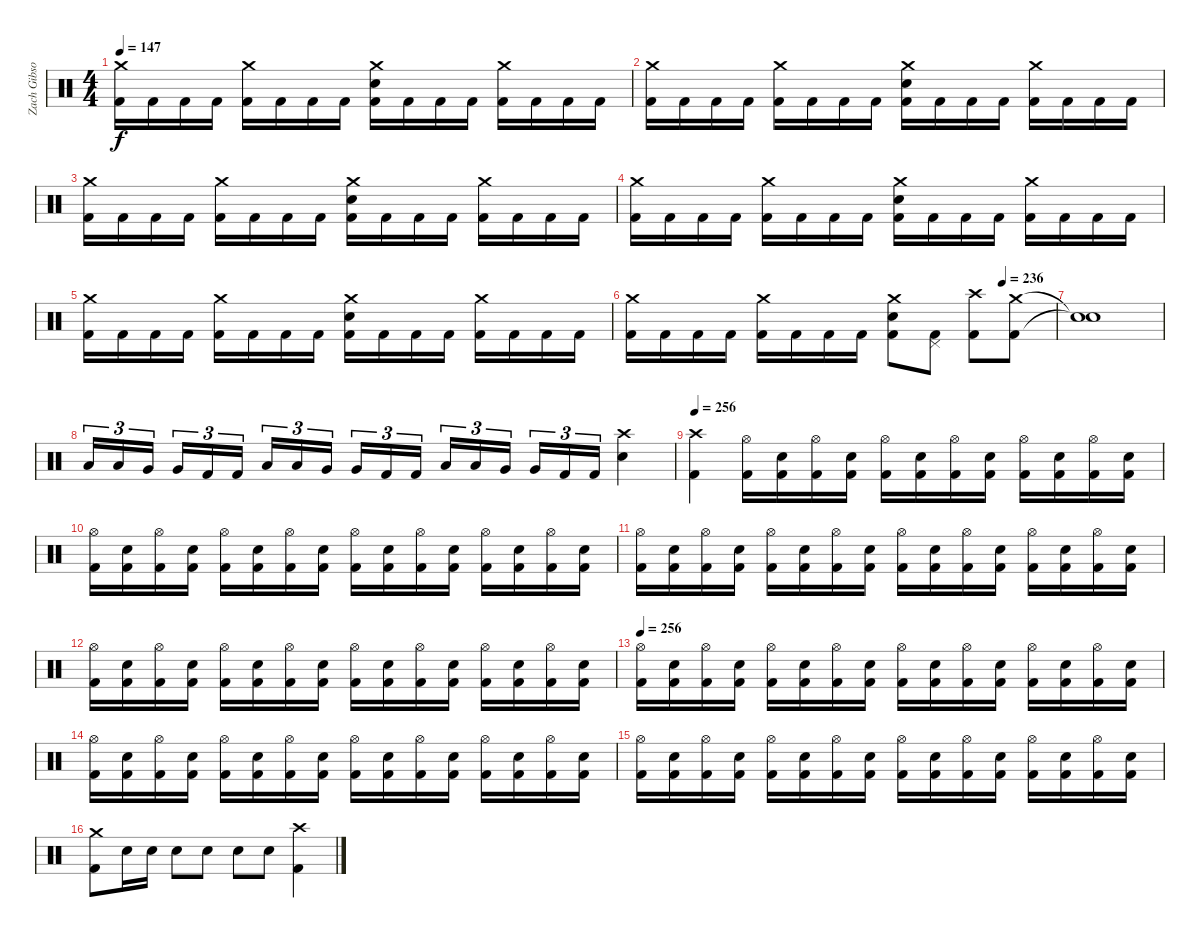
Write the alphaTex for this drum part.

\track ("Zach Gibson (Drums)" "Zach Gibso") {instrument percussion}
\staff {score}
\articulation defaults
\ts (4 4)
\tempo 147
\clef neutral
\ks c
("Crash medium (hit)" "Kick (hit) 2").16{dy f} "Kick (hit) 2".16 "Kick (hit) 2".16 "Kick (hit) 2".16 ("Crash medium (hit)" "Kick (hit) 2").16 "Kick (hit) 2".16 "Kick (hit) 2".16 "Kick (hit) 2".16 ("Crash medium (hit)" "Snare (hit) 2" "Kick (hit) 2").16 "Kick (hit) 2".16 "Kick (hit) 2".16 "Kick (hit) 2".16 ("Crash medium (hit)" "Kick (hit) 2").16 "Kick (hit) 2".16 "Kick (hit) 2".16 "Kick (hit) 2".16 |
("Crash medium (hit)" "Kick (hit) 2").16 "Kick (hit) 2".16 "Kick (hit) 2".16 "Kick (hit) 2".16 ("Crash medium (hit)" "Kick (hit) 2").16 "Kick (hit) 2".16 "Kick (hit) 2".16 "Kick (hit) 2".16 ("Crash medium (hit)" "Snare (hit) 2" "Kick (hit) 2").16 "Kick (hit) 2".16 "Kick (hit) 2".16 "Kick (hit) 2".16 ("Crash medium (hit)" "Kick (hit) 2").16 "Kick (hit) 2".16 "Kick (hit) 2".16 "Kick (hit) 2".16 |
("Crash medium (hit)" "Kick (hit) 2").16 "Kick (hit) 2".16 "Kick (hit) 2".16 "Kick (hit) 2".16 ("Crash medium (hit)" "Kick (hit) 2").16 "Kick (hit) 2".16 "Kick (hit) 2".16 "Kick (hit) 2".16 ("Crash medium (hit)" "Snare (hit) 2" "Kick (hit) 2").16 "Kick (hit) 2".16 "Kick (hit) 2".16 "Kick (hit) 2".16 ("Crash medium (hit)" "Kick (hit) 2").16 "Kick (hit) 2".16 "Kick (hit) 2".16 "Kick (hit) 2".16 |
("Crash medium (hit)" "Kick (hit) 2").16 "Kick (hit) 2".16 "Kick (hit) 2".16 "Kick (hit) 2".16 ("Crash medium (hit)" "Kick (hit) 2").16 "Kick (hit) 2".16 "Kick (hit) 2".16 "Kick (hit) 2".16 ("Crash medium (hit)" "Snare (hit) 2" "Kick (hit) 2").16 "Kick (hit) 2".16 "Kick (hit) 2".16 "Kick (hit) 2".16 ("Crash medium (hit)" "Kick (hit) 2").16 "Kick (hit) 2".16 "Kick (hit) 2".16 "Kick (hit) 2".16 |
("Crash medium (hit)" "Kick (hit) 2").16 "Kick (hit) 2".16 "Kick (hit) 2".16 "Kick (hit) 2".16 ("Crash medium (hit)" "Kick (hit) 2").16 "Kick (hit) 2".16 "Kick (hit) 2".16 "Kick (hit) 2".16 ("Crash medium (hit)" "Snare (hit) 2" "Kick (hit) 2").16 "Kick (hit) 2".16 "Kick (hit) 2".16 "Kick (hit) 2".16 ("Crash medium (hit)" "Kick (hit) 2").16 "Kick (hit) 2".16 "Kick (hit) 2".16 "Kick (hit) 2".16 |
\tempo (236 0.875)
("Crash medium (hit)" "Kick (hit) 2").16 "Kick (hit) 2".16 "Kick (hit) 2".16 "Kick (hit) 2".16 ("Crash medium (hit)" "Kick (hit) 2").16 "Kick (hit) 2".16 "Kick (hit) 2".16 "Kick (hit) 2".16 ("Crash medium (hit)" "Snare (hit) 2" "Kick (hit) 2").8 ("Pedal Hi-Hat (hit)" "Kick (hit) 2").8 ("Crash high (hit)" "Kick (hit) 2").8 ("Crash medium (hit)" "Kick (hit) 2").8 |
("Snare (hit)"{t} "Snare (hit)"{t}).1 |
"Low Tom (hit)".16{tu (3 2)} "Low Tom (hit)".16{tu (3 2)} "Very Low Tom (hit)".16{tu (3 2)} "Very Low Tom (hit)".16{tu (3 2)} "Kick (hit) 2".16{tu (3 2)} "Kick (hit) 2".16{tu (3 2)} "Low Tom (hit)".16{tu (3 2)} "Low Tom (hit)".16{tu (3 2)} "Very Low Tom (hit)".16{tu (3 2)} "Very Low Tom (hit)".16{tu (3 2)} "Kick (hit) 2".16{tu (3 2)} "Kick (hit) 2".16{tu (3 2)} "Low Tom (hit)".16{tu (3 2)} "Low Tom (hit)".16{tu (3 2)} "Very Low Tom (hit)".16{tu (3 2)} "Very Low Tom (hit)".16{tu (3 2)} "Kick (hit) 2".16{tu (3 2)} "Kick (hit) 2".16{tu (3 2)} ("Crash high (hit)" "Snare (hit) 2").4 |
\tempo 256
("Crash high (hit)" "Kick (hit) 2").4 ("Hi-Hat (open)" "Kick (hit) 2").16 ("Snare (hit) 2" "Kick (hit) 2").16 ("Hi-Hat (open)" "Kick (hit) 2").16 ("Snare (hit) 2" "Kick (hit) 2").16 ("Hi-Hat (open)" "Kick (hit) 2").16 ("Snare (hit) 2" "Kick (hit) 2").16 ("Hi-Hat (open)" "Kick (hit) 2").16 ("Snare (hit) 2" "Kick (hit) 2").16 ("Hi-Hat (open)" "Kick (hit) 2").16 ("Kick (hit) 2" "Snare (hit) 2").16 ("Hi-Hat (open)" "Kick (hit) 2").16 ("Kick (hit) 2" "Snare (hit) 2").16 |
("Hi-Hat (open)" "Kick (hit) 2").16 ("Snare (hit) 2" "Kick (hit) 2").16 ("Hi-Hat (open)" "Kick (hit) 2").16 ("Snare (hit) 2" "Kick (hit) 2").16 ("Hi-Hat (open)" "Kick (hit) 2").16 ("Snare (hit) 2" "Kick (hit) 2").16 ("Hi-Hat (open)" "Kick (hit) 2").16 ("Snare (hit) 2" "Kick (hit) 2").16 ("Hi-Hat (open)" "Kick (hit) 2").16 ("Snare (hit) 2" "Kick (hit) 2").16 ("Hi-Hat (open)" "Kick (hit) 2").16 ("Snare (hit) 2" "Kick (hit) 2").16 ("Hi-Hat (open)" "Kick (hit) 2").16 ("Snare (hit) 2" "Kick (hit) 2").16 ("Hi-Hat (open)" "Kick (hit) 2").16 ("Snare (hit) 2" "Kick (hit) 2").16 |
("Hi-Hat (open)" "Kick (hit) 2").16 ("Snare (hit) 2" "Kick (hit) 2").16 ("Hi-Hat (open)" "Kick (hit) 2").16 ("Snare (hit) 2" "Kick (hit) 2").16 ("Hi-Hat (open)" "Kick (hit) 2").16 ("Snare (hit) 2" "Kick (hit) 2").16 ("Hi-Hat (open)" "Kick (hit) 2").16 ("Snare (hit) 2" "Kick (hit) 2").16 ("Hi-Hat (open)" "Kick (hit) 2").16 ("Snare (hit) 2" "Kick (hit) 2").16 ("Hi-Hat (open)" "Kick (hit) 2").16 ("Snare (hit) 2" "Kick (hit) 2").16 ("Hi-Hat (open)" "Kick (hit) 2").16 ("Snare (hit) 2" "Kick (hit) 2").16 ("Hi-Hat (open)" "Kick (hit) 2").16 ("Snare (hit) 2" "Kick (hit) 2").16 |
("Hi-Hat (open)" "Kick (hit) 2").16 ("Snare (hit) 2" "Kick (hit) 2").16 ("Hi-Hat (open)" "Kick (hit) 2").16 ("Snare (hit) 2" "Kick (hit) 2").16 ("Hi-Hat (open)" "Kick (hit) 2").16 ("Snare (hit) 2" "Kick (hit) 2").16 ("Hi-Hat (open)" "Kick (hit) 2").16 ("Snare (hit) 2" "Kick (hit) 2").16 ("Hi-Hat (open)" "Kick (hit) 2").16 ("Snare (hit) 2" "Kick (hit) 2").16 ("Hi-Hat (open)" "Kick (hit) 2").16 ("Snare (hit) 2" "Kick (hit) 2").16 ("Hi-Hat (open)" "Kick (hit) 2").16 ("Snare (hit) 2" "Kick (hit) 2").16 ("Hi-Hat (open)" "Kick (hit) 2").16 ("Snare (hit) 2" "Kick (hit) 2").16 |
\tempo 256
("Hi-Hat (open)" "Kick (hit) 2").16 ("Snare (hit) 2" "Kick (hit) 2").16 ("Hi-Hat (open)" "Kick (hit) 2").16 ("Snare (hit) 2" "Kick (hit) 2").16 ("Hi-Hat (open)" "Kick (hit) 2").16 ("Snare (hit) 2" "Kick (hit) 2").16 ("Hi-Hat (open)" "Kick (hit) 2").16 ("Snare (hit) 2" "Kick (hit) 2").16 ("Hi-Hat (open)" "Kick (hit) 2").16 ("Snare (hit) 2" "Kick (hit) 2").16 ("Hi-Hat (open)" "Kick (hit) 2").16 ("Snare (hit) 2" "Kick (hit) 2").16 ("Hi-Hat (open)" "Kick (hit) 2").16 ("Snare (hit) 2" "Kick (hit) 2").16 ("Hi-Hat (open)" "Kick (hit) 2").16 ("Snare (hit) 2" "Kick (hit) 2").16 |
("Hi-Hat (open)" "Kick (hit) 2").16 ("Snare (hit) 2" "Kick (hit) 2").16 ("Hi-Hat (open)" "Kick (hit) 2").16 ("Snare (hit) 2" "Kick (hit) 2").16 ("Hi-Hat (open)" "Kick (hit) 2").16 ("Snare (hit) 2" "Kick (hit) 2").16 ("Hi-Hat (open)" "Kick (hit) 2").16 ("Snare (hit) 2" "Kick (hit) 2").16 ("Hi-Hat (open)" "Kick (hit) 2").16 ("Snare (hit) 2" "Kick (hit) 2").16 ("Hi-Hat (open)" "Kick (hit) 2").16 ("Snare (hit) 2" "Kick (hit) 2").16 ("Hi-Hat (open)" "Kick (hit) 2").16 ("Snare (hit) 2" "Kick (hit) 2").16 ("Hi-Hat (open)" "Kick (hit) 2").16 ("Snare (hit) 2" "Kick (hit) 2").16 |
("Hi-Hat (open)" "Kick (hit) 2").16 ("Snare (hit) 2" "Kick (hit) 2").16 ("Hi-Hat (open)" "Kick (hit) 2").16 ("Snare (hit) 2" "Kick (hit) 2").16 ("Hi-Hat (open)" "Kick (hit) 2").16 ("Snare (hit) 2" "Kick (hit) 2").16 ("Hi-Hat (open)" "Kick (hit) 2").16 ("Snare (hit) 2" "Kick (hit) 2").16 ("Hi-Hat (open)" "Kick (hit) 2").16 ("Snare (hit) 2" "Kick (hit) 2").16 ("Hi-Hat (open)" "Kick (hit) 2").16 ("Snare (hit) 2" "Kick (hit) 2").16 ("Hi-Hat (open)" "Kick (hit) 2").16 ("Snare (hit) 2" "Kick (hit) 2").16 ("Hi-Hat (open)" "Kick (hit) 2").16 ("Snare (hit) 2" "Kick (hit) 2").16 |
("Crash medium (hit)" "Kick (hit) 2").8 "Snare (hit) 2".16 "Snare (hit) 2".16 "Snare (hit) 2".8 "Snare (hit) 2".8 "Snare (hit) 2".8 "Snare (hit) 2".8 ("Crash high (hit)" "Kick (hit) 2").4
